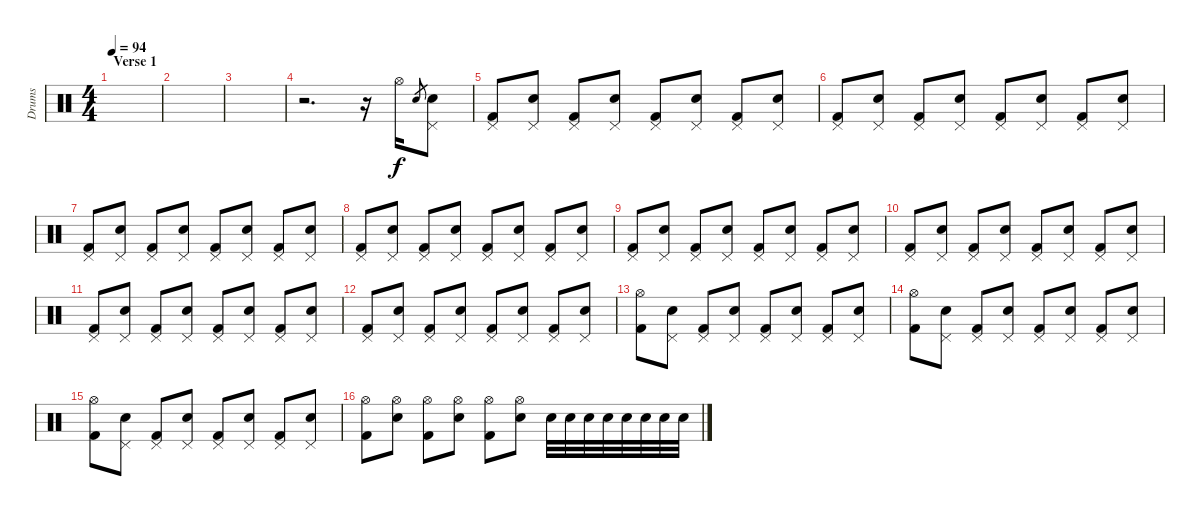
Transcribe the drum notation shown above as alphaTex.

\track ("Drums" "Drums") {instrument percussion}
\staff {score}
\articulation defaults
\ts (4 4)
\section ("" "Verse 1")
\tempo 94
\clef neutral
\ks c
|
|
|
r.2{d} r.16 "Hi-Hat (open)".16 "Electric Snare (hit)".8{gr} ("Pedal Hi-Hat (hit)" "Electric Snare (hit)").8 |
("Pedal Hi-Hat (hit)" "Kick (hit) 2").8 ("Pedal Hi-Hat (hit)" "Electric Snare (hit)").8 ("Pedal Hi-Hat (hit)" "Kick (hit) 2").8 ("Pedal Hi-Hat (hit)" "Electric Snare (hit)").8 ("Pedal Hi-Hat (hit)" "Kick (hit) 2").8 ("Pedal Hi-Hat (hit)" "Electric Snare (hit)").8 ("Pedal Hi-Hat (hit)" "Kick (hit) 2").8 ("Pedal Hi-Hat (hit)" "Electric Snare (hit)").8 |
("Pedal Hi-Hat (hit)" "Kick (hit) 2").8 ("Pedal Hi-Hat (hit)" "Electric Snare (hit)").8 ("Pedal Hi-Hat (hit)" "Kick (hit) 2").8 ("Pedal Hi-Hat (hit)" "Electric Snare (hit)").8 ("Pedal Hi-Hat (hit)" "Kick (hit) 2").8 ("Pedal Hi-Hat (hit)" "Electric Snare (hit)").8 ("Pedal Hi-Hat (hit)" "Kick (hit) 2").8 ("Pedal Hi-Hat (hit)" "Electric Snare (hit)").8 |
("Pedal Hi-Hat (hit)" "Kick (hit) 2").8 ("Pedal Hi-Hat (hit)" "Electric Snare (hit)").8 ("Pedal Hi-Hat (hit)" "Kick (hit) 2").8 ("Pedal Hi-Hat (hit)" "Electric Snare (hit)").8 ("Pedal Hi-Hat (hit)" "Kick (hit) 2").8 ("Pedal Hi-Hat (hit)" "Electric Snare (hit)").8 ("Pedal Hi-Hat (hit)" "Kick (hit) 2").8 ("Pedal Hi-Hat (hit)" "Electric Snare (hit)").8 |
("Pedal Hi-Hat (hit)" "Kick (hit) 2").8 ("Pedal Hi-Hat (hit)" "Electric Snare (hit)").8 ("Pedal Hi-Hat (hit)" "Kick (hit) 2").8 ("Pedal Hi-Hat (hit)" "Electric Snare (hit)").8 ("Pedal Hi-Hat (hit)" "Kick (hit) 2").8 ("Pedal Hi-Hat (hit)" "Electric Snare (hit)").8 ("Pedal Hi-Hat (hit)" "Kick (hit) 2").8 ("Pedal Hi-Hat (hit)" "Electric Snare (hit)").8 |
("Pedal Hi-Hat (hit)" "Kick (hit) 2").8 ("Pedal Hi-Hat (hit)" "Electric Snare (hit)").8 ("Pedal Hi-Hat (hit)" "Kick (hit) 2").8 ("Pedal Hi-Hat (hit)" "Electric Snare (hit)").8 ("Pedal Hi-Hat (hit)" "Kick (hit) 2").8 ("Pedal Hi-Hat (hit)" "Electric Snare (hit)").8 ("Pedal Hi-Hat (hit)" "Kick (hit) 2").8 ("Pedal Hi-Hat (hit)" "Electric Snare (hit)").8 |
("Pedal Hi-Hat (hit)" "Kick (hit) 2").8 ("Pedal Hi-Hat (hit)" "Electric Snare (hit)").8 ("Pedal Hi-Hat (hit)" "Kick (hit) 2").8 ("Pedal Hi-Hat (hit)" "Electric Snare (hit)").8 ("Pedal Hi-Hat (hit)" "Kick (hit) 2").8 ("Pedal Hi-Hat (hit)" "Electric Snare (hit)").8 ("Pedal Hi-Hat (hit)" "Kick (hit) 2").8 ("Pedal Hi-Hat (hit)" "Electric Snare (hit)").8 |
("Pedal Hi-Hat (hit)" "Kick (hit) 2").8 ("Pedal Hi-Hat (hit)" "Electric Snare (hit)").8 ("Pedal Hi-Hat (hit)" "Kick (hit) 2").8 ("Pedal Hi-Hat (hit)" "Electric Snare (hit)").8 ("Pedal Hi-Hat (hit)" "Kick (hit) 2").8 ("Pedal Hi-Hat (hit)" "Electric Snare (hit)").8 ("Pedal Hi-Hat (hit)" "Kick (hit) 2").8 ("Pedal Hi-Hat (hit)" "Electric Snare (hit)").8 |
("Pedal Hi-Hat (hit)" "Kick (hit) 2").8 ("Pedal Hi-Hat (hit)" "Electric Snare (hit)").8 ("Pedal Hi-Hat (hit)" "Kick (hit) 2").8 ("Pedal Hi-Hat (hit)" "Electric Snare (hit)").8 ("Pedal Hi-Hat (hit)" "Kick (hit) 2").8 ("Pedal Hi-Hat (hit)" "Electric Snare (hit)").8 ("Pedal Hi-Hat (hit)" "Kick (hit) 2").8 ("Pedal Hi-Hat (hit)" "Electric Snare (hit)").8 |
("Hi-Hat (open)" "Kick (hit) 2").8 ("Pedal Hi-Hat (hit)" "Electric Snare (hit)").8 ("Pedal Hi-Hat (hit)" "Kick (hit) 2").8 ("Pedal Hi-Hat (hit)" "Electric Snare (hit)").8 ("Pedal Hi-Hat (hit)" "Kick (hit) 2").8 ("Pedal Hi-Hat (hit)" "Electric Snare (hit)").8 ("Pedal Hi-Hat (hit)" "Kick (hit) 2").8 ("Pedal Hi-Hat (hit)" "Electric Snare (hit)").8 |
("Hi-Hat (open)" "Kick (hit) 2").8 ("Pedal Hi-Hat (hit)" "Electric Snare (hit)").8 ("Pedal Hi-Hat (hit)" "Kick (hit) 2").8 ("Pedal Hi-Hat (hit)" "Electric Snare (hit)").8 ("Pedal Hi-Hat (hit)" "Kick (hit) 2").8 ("Pedal Hi-Hat (hit)" "Electric Snare (hit)").8 ("Pedal Hi-Hat (hit)" "Kick (hit) 2").8 ("Pedal Hi-Hat (hit)" "Electric Snare (hit)").8 |
("Hi-Hat (open)" "Kick (hit) 2").8 ("Pedal Hi-Hat (hit)" "Electric Snare (hit)").8 ("Pedal Hi-Hat (hit)" "Kick (hit) 2").8 ("Pedal Hi-Hat (hit)" "Electric Snare (hit)").8 ("Pedal Hi-Hat (hit)" "Kick (hit) 2").8 ("Pedal Hi-Hat (hit)" "Electric Snare (hit)").8 ("Pedal Hi-Hat (hit)" "Kick (hit) 2").8 ("Pedal Hi-Hat (hit)" "Electric Snare (hit)").8 |
("Hi-Hat (open)" "Kick (hit) 2").8 ("Hi-Hat (open)" "Electric Snare (hit)").8 ("Hi-Hat (open)" "Kick (hit) 2").8 ("Hi-Hat (open)" "Electric Snare (hit)").8 ("Hi-Hat (open)" "Kick (hit) 2").8 ("Hi-Hat (open)" "Electric Snare (hit)").8 "Electric Snare (hit)".32 "Electric Snare (hit)".32 "Electric Snare (hit)".32 "Electric Snare (hit)".32 "Electric Snare (hit)".32 "Electric Snare (hit)".32 "Electric Snare (hit)".32 "Electric Snare (hit)".32
